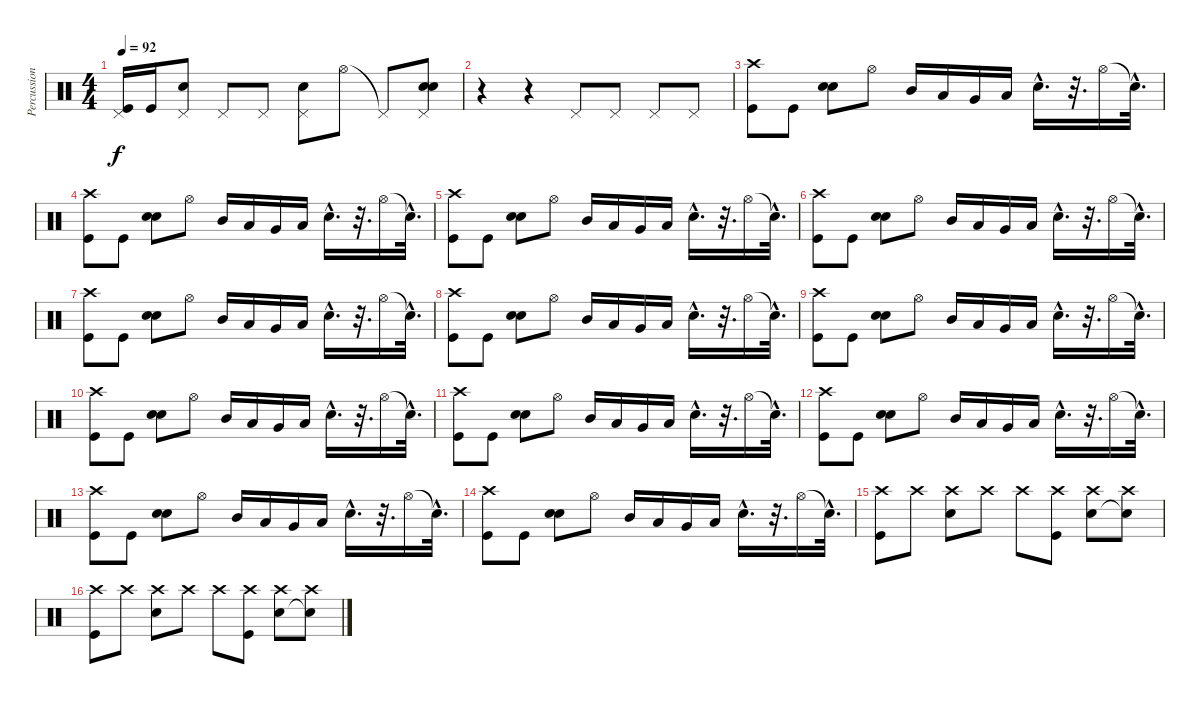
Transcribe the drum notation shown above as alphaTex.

\track ("Percussions (Etn)" "Percussion") {instrument percussion}
\staff {score}
\articulation defaults
\ts (4 4)
\tempo 92
\clef neutral
\ks c
("Pedal Hi-Hat (hit)" "Kick (hit)").16{dy f} "Kick (hit)".16 ("Pedal Hi-Hat (hit)" "Electric Snare (hit)").8 "Pedal Hi-Hat (hit)".8 "Pedal Hi-Hat (hit)".8 ("Pedal Hi-Hat (hit)" "Electric Snare (hit)").8 "Hi-Hat (open)".8 "Pedal Hi-Hat (hit)"{t}.8 ("Pedal Hi-Hat (hit)" "Electric Snare (hit)" "Snare (hit) 2").8{bd 480} |
r.4 r.4 "Pedal Hi-Hat (hit)".8 "Pedal Hi-Hat (hit)".8 "Pedal Hi-Hat (hit)".8 "Pedal Hi-Hat (hit)".8 |
("Crash high (hit)" "Kick (hit)").8 "Kick (hit)".8 ("Snare (hit) 2" "Electric Snare (hit)").8{bd 120} "Hi-Hat (open)".8 "Mid Tom (hit)".16 "Low Tom (hit)".16 "Very Low Tom (hit)".16 "Low Floor Tom (hit)".16 "Electric Snare (hit)"{hac}.16{d} r.32{d} "Hi-Hat (open)".16 "Snare (hit)"{hac t}.32{d} |
("Crash high (hit)" "Kick (hit)").8 "Kick (hit)".8 ("Snare (hit) 2" "Electric Snare (hit)").8{bd 120} "Hi-Hat (open)".8 "Mid Tom (hit)".16 "Low Tom (hit)".16 "Very Low Tom (hit)".16 "Low Floor Tom (hit)".16 "Electric Snare (hit)"{hac}.16{d} r.32{d} "Hi-Hat (open)".16 "Snare (hit)"{hac t}.32{d} |
("Crash high (hit)" "Kick (hit)").8 "Kick (hit)".8 ("Snare (hit) 2" "Electric Snare (hit)").8{bd 120} "Hi-Hat (open)".8 "Mid Tom (hit)".16 "Low Tom (hit)".16 "Very Low Tom (hit)".16 "Low Floor Tom (hit)".16 "Electric Snare (hit)"{hac}.16{d} r.32{d} "Hi-Hat (open)".16 "Snare (hit)"{hac t}.32{d} |
("Crash high (hit)" "Kick (hit)").8 "Kick (hit)".8 ("Snare (hit) 2" "Electric Snare (hit)").8{bd 120} "Hi-Hat (open)".8 "Mid Tom (hit)".16 "Low Tom (hit)".16 "Very Low Tom (hit)".16 "Low Floor Tom (hit)".16 "Electric Snare (hit)"{hac}.16{d} r.32{d} "Hi-Hat (open)".16 "Snare (hit)"{hac t}.32{d} |
("Crash high (hit)" "Kick (hit)").8 "Kick (hit)".8 ("Snare (hit) 2" "Electric Snare (hit)").8{bd 120} "Hi-Hat (open)".8 "Mid Tom (hit)".16 "Low Tom (hit)".16 "Very Low Tom (hit)".16 "Low Floor Tom (hit)".16 "Electric Snare (hit)"{hac}.16{d} r.32{d} "Hi-Hat (open)".16 "Snare (hit)"{hac t}.32{d} |
("Crash high (hit)" "Kick (hit)").8 "Kick (hit)".8 ("Snare (hit) 2" "Electric Snare (hit)").8{bd 120} "Hi-Hat (open)".8 "Mid Tom (hit)".16 "Low Tom (hit)".16 "Very Low Tom (hit)".16 "Low Floor Tom (hit)".16 "Electric Snare (hit)"{hac}.16{d} r.32{d} "Hi-Hat (open)".16 "Snare (hit)"{hac t}.32{d} |
("Crash high (hit)" "Kick (hit)").8 "Kick (hit)".8 ("Snare (hit) 2" "Electric Snare (hit)").8{bd 120} "Hi-Hat (open)".8 "Mid Tom (hit)".16 "Low Tom (hit)".16 "Very Low Tom (hit)".16 "Low Floor Tom (hit)".16 "Electric Snare (hit)"{hac}.16{d} r.32{d} "Hi-Hat (open)".16 "Snare (hit)"{hac t}.32{d} |
("Crash high (hit)" "Kick (hit)").8 "Kick (hit)".8 ("Snare (hit) 2" "Electric Snare (hit)").8{bd 120} "Hi-Hat (open)".8 "Mid Tom (hit)".16 "Low Tom (hit)".16 "Very Low Tom (hit)".16 "Low Floor Tom (hit)".16 "Electric Snare (hit)"{hac}.16{d} r.32{d} "Hi-Hat (open)".16 "Snare (hit)"{hac t}.32{d} |
("Crash high (hit)" "Kick (hit)").8 "Kick (hit)".8 ("Snare (hit) 2" "Electric Snare (hit)").8{bd 120} "Hi-Hat (open)".8 "Mid Tom (hit)".16 "Low Tom (hit)".16 "Very Low Tom (hit)".16 "Low Floor Tom (hit)".16 "Electric Snare (hit)"{hac}.16{d} r.32{d} "Hi-Hat (open)".16 "Snare (hit)"{hac t}.32{d} |
("Crash high (hit)" "Kick (hit)").8 "Kick (hit)".8 ("Snare (hit) 2" "Electric Snare (hit)").8{bd 120} "Hi-Hat (open)".8 "Mid Tom (hit)".16 "Low Tom (hit)".16 "Very Low Tom (hit)".16 "Low Floor Tom (hit)".16 "Electric Snare (hit)"{hac}.16{d} r.32{d} "Hi-Hat (open)".16 "Snare (hit)"{hac t}.32{d} |
("Crash high (hit)" "Kick (hit)").8 "Kick (hit)".8 ("Snare (hit) 2" "Electric Snare (hit)").8{bd 120} "Hi-Hat (open)".8 "Mid Tom (hit)".16 "Low Tom (hit)".16 "Very Low Tom (hit)".16 "Low Floor Tom (hit)".16 "Electric Snare (hit)"{hac}.16{d} r.32{d} "Hi-Hat (open)".16 "Snare (hit)"{hac t}.32{d} |
("Crash high (hit)" "Kick (hit)").8 "Kick (hit)".8 ("Snare (hit) 2" "Electric Snare (hit)").8{bd 120} "Hi-Hat (open)".8 "Mid Tom (hit)".16 "Low Tom (hit)".16 "Very Low Tom (hit)".16 "Low Floor Tom (hit)".16 "Electric Snare (hit)"{hac}.16{d} r.32{d} "Hi-Hat (open)".16 "Snare (hit)"{hac t}.32{d} |
("Crash high (hit)" "Kick (hit)").8 "Crash high (hit)".8 ("Crash high (hit)" "Electric Snare (hit)").8 "Crash high (hit)".8 "Crash high (hit)".8 ("Crash high (hit)" "Kick (hit)").8 ("Crash high (hit)" "Electric Snare (hit)").8 ("Crash high (hit)" "Electric Snare (hit)"{t}).8 |
("Crash high (hit)" "Kick (hit)").8 "Crash high (hit)".8 ("Crash high (hit)" "Electric Snare (hit)").8 "Crash high (hit)".8 "Crash high (hit)".8 ("Crash high (hit)" "Kick (hit)").8 ("Crash high (hit)" "Electric Snare (hit)").8 ("Crash high (hit)" "Electric Snare (hit)"{t}).8
